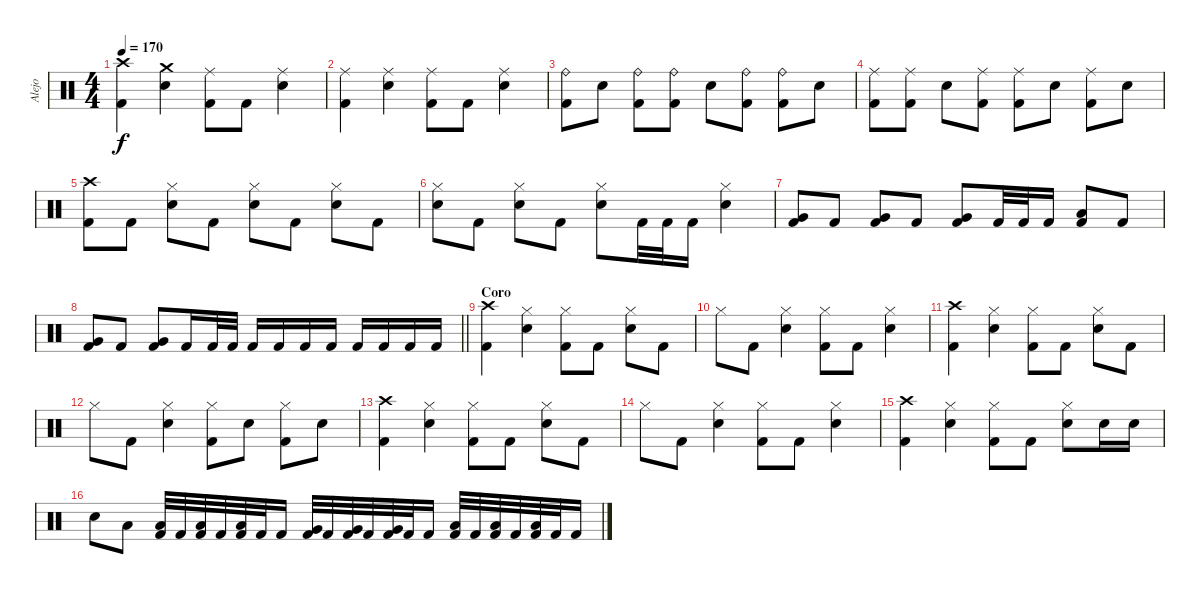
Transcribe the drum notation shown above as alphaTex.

\track ("Alejo" "Alejo") {instrument percussion}
\staff {score}
\articulation defaults
\ts (4 4)
\tempo 170
\clef neutral
\ks c
("Crash high (hit)" "Kick (hit) 2").4{dy f} ("Snare (hit) 2" "Crash medium (hit)").4 ("Kick (hit) 2" "Ride (middle)").8 "Kick (hit) 2".8 ("Ride (middle)" "Snare (hit) 2").4 |
("Kick (hit) 2" "Ride (middle)").4 ("Ride (middle)" "Snare (hit) 2").4 ("Kick (hit) 2" "Ride (middle)").8 "Kick (hit) 2".8 ("Ride (middle)" "Snare (hit) 2").4 |
("Ride (bell)" "Kick (hit) 2").8 "Snare (hit) 2".8 ("Ride (bell)" "Kick (hit) 2").8 ("Ride (bell)" "Kick (hit) 2").8 "Snare (hit) 2".8 ("Ride (bell)" "Kick (hit) 2").8 ("Ride (bell)" "Kick (hit) 2").8 "Snare (hit) 2".8 |
("Ride (middle)" "Kick (hit) 2").8 ("Ride (middle)" "Kick (hit) 2").8 "Snare (hit) 2".8 ("Ride (middle)" "Kick (hit) 2").8 ("Ride (middle)" "Kick (hit) 2").8 "Snare (hit) 2".8 ("Ride (middle)" "Kick (hit) 2").8 "Snare (hit) 2".8 |
("Crash high (hit)" "Kick (hit) 2").8 "Kick (hit) 2".8 ("Snare (hit) 2" "Hi-Hat (closed)").8 "Kick (hit) 2".8 ("Snare (hit) 2" "Hi-Hat (closed)").8 "Kick (hit) 2".8 ("Snare (hit) 2" "Hi-Hat (closed)").8 "Kick (hit) 2".8 |
("Snare (hit) 2" "Hi-Hat (closed)").8 "Kick (hit) 2".8 ("Snare (hit) 2" "Hi-Hat (closed)").8 "Kick (hit) 2".8 ("Snare (hit) 2" "Hi-Hat (closed)").8 "Kick (hit) 2".32 "Kick (hit) 2".32 "Kick (hit) 2".16 ("Snare (hit) 2" "Hi-Hat (closed)").4 |
("Very Low Tom (hit)" "Kick (hit) 2").8 "Kick (hit) 2".8 ("Kick (hit) 2" "Very Low Tom (hit)").8 "Kick (hit) 2".8 ("Kick (hit) 2" "Very Low Tom (hit)").8 "Kick (hit) 2".32 "Kick (hit) 2".32 "Kick (hit) 2".16 ("Kick (hit) 2" "Low Floor Tom (hit)").8 "Kick (hit) 2".8 |
\barLineRight lightlight
("Very Low Tom (hit)" "Kick (hit) 2").8 "Kick (hit) 2".8 ("Kick (hit) 2" "Very Low Tom (hit)").8 "Kick (hit) 2".16 "Kick (hit) 2".32 "Kick (hit) 2".32 "Kick (hit) 2".16 "Kick (hit) 2".16 "Kick (hit) 2".16 "Kick (hit) 2".16 "Kick (hit) 2".16 "Kick (hit) 2".16 "Kick (hit) 2".16 "Kick (hit) 2".16 |
\section ("" "Coro")
("Crash high (hit)" "Kick (hit) 2").4 ("Snare (hit) 2" "Hi-Hat (closed)").4 ("Kick (hit) 2" "Hi-Hat (closed)").8 "Kick (hit) 2".8 ("Snare (hit) 2" "Hi-Hat (closed)").8 "Kick (hit) 2".8 |
"Hi-Hat (closed)".8 "Kick (hit) 2".8 ("Snare (hit) 2" "Hi-Hat (closed)").4 ("Kick (hit) 2" "Hi-Hat (closed)").8 "Kick (hit) 2".8 ("Snare (hit) 2" "Hi-Hat (closed)").4 |
("Crash high (hit)" "Kick (hit) 2").4 ("Snare (hit) 2" "Hi-Hat (closed)").4 ("Kick (hit) 2" "Hi-Hat (closed)").8 "Kick (hit) 2".8 ("Snare (hit) 2" "Hi-Hat (closed)").8 "Kick (hit) 2".8 |
"Hi-Hat (closed)".8 "Kick (hit) 2".8 ("Snare (hit) 2" "Hi-Hat (closed)").4 ("Kick (hit) 2" "Hi-Hat (closed)").8 "Snare (hit) 2".8 ("Kick (hit) 2" "Hi-Hat (closed)").8 "Snare (hit) 2".8 |
("Crash high (hit)" "Kick (hit) 2").4 ("Snare (hit) 2" "Hi-Hat (closed)").4 ("Kick (hit) 2" "Hi-Hat (closed)").8 "Kick (hit) 2".8 ("Snare (hit) 2" "Hi-Hat (closed)").8 "Kick (hit) 2".8 |
"Hi-Hat (closed)".8 "Kick (hit) 2".8 ("Snare (hit) 2" "Hi-Hat (closed)").4 ("Kick (hit) 2" "Hi-Hat (closed)").8 "Kick (hit) 2".8 ("Snare (hit) 2" "Hi-Hat (closed)").4 |
("Crash high (hit)" "Kick (hit) 2").4 ("Snare (hit) 2" "Hi-Hat (closed)").4 ("Kick (hit) 2" "Hi-Hat (closed)").8 "Kick (hit) 2".8 ("Snare (hit) 2" "Hi-Hat (closed)").8 "Snare (hit) 2".16 "Snare (hit) 2".16 |
"Snare (hit) 2".8 "Low Tom (hit)".8 ("Kick (hit) 2" "Low Tom (hit)").32 "Kick (hit) 2".32 ("Kick (hit) 2" "Low Tom (hit)").32 "Kick (hit) 2".32 ("Kick (hit) 2" "Low Tom (hit)").32 "Kick (hit) 2".32 "Kick (hit) 2".16 ("Kick (hit) 2" "Very Low Tom (hit)").32 "Kick (hit) 2".32 ("Kick (hit) 2" "Very Low Tom (hit)").32 "Kick (hit) 2".32 ("Kick (hit) 2" "Very Low Tom (hit)").32 "Kick (hit) 2".32 "Kick (hit) 2".16 ("Kick (hit) 2" "Low Floor Tom (hit)").32 "Kick (hit) 2".32 ("Kick (hit) 2" "Low Floor Tom (hit)").32 "Kick (hit) 2".32 ("Kick (hit) 2" "Low Floor Tom (hit)").32 "Kick (hit) 2".32 "Kick (hit) 2".16
